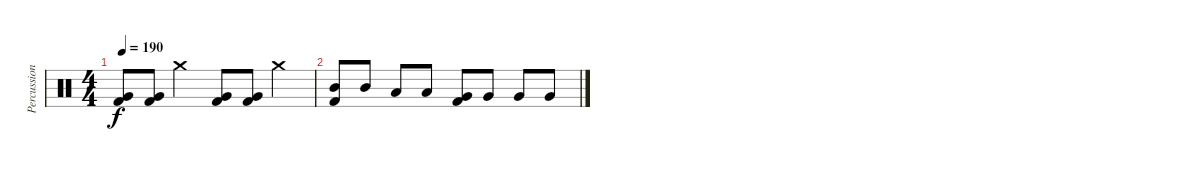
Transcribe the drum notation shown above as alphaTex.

\track ("Percussion" "Percussion") {instrument percussion}
\staff {score}
\articulation defaults
\ts (4 4)
\tempo 190
\clef neutral
\ks c
("Very Low Tom (hit)" "Kick (hit) 2").8{dy f} ("Very Low Tom (hit)" "Kick (hit) 2").8 "Crash medium (hit)".4 ("Very Low Tom (hit)" "Kick (hit) 2").8 ("Very Low Tom (hit)" "Kick (hit) 2").8 "Crash medium (hit)".4 |
("Mid Tom (hit)" "Kick (hit) 2").8 "Mid Tom (hit)".8 "Low Tom (hit)".8 "Low Tom (hit)".8 ("Very Low Tom (hit)" "Kick (hit) 2").8 "Very Low Tom (hit)".8 "Very Low Tom (hit)".8 "Very Low Tom (hit)".8
